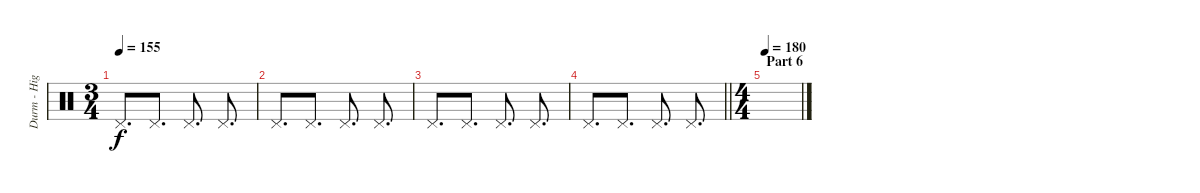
\track ("Durm - High Hat" "Durm - Hig") {instrument percussion}
\staff {score}
\articulation defaults
\ts (3 4)
\tempo 155
\clef neutral
\ks c "Pedal Hi-Hat (hit)".8{d dy f} "Pedal Hi-Hat (hit)".8{d} "Pedal Hi-Hat (hit)".8{d} "Pedal Hi-Hat (hit)".8{d}
|
"Pedal Hi-Hat (hit)".8{d} "Pedal Hi-Hat (hit)".8{d} "Pedal Hi-Hat (hit)".8{d} "Pedal Hi-Hat (hit)".8{d} |
"Pedal Hi-Hat (hit)".8{d} "Pedal Hi-Hat (hit)".8{d} "Pedal Hi-Hat (hit)".8{d} "Pedal Hi-Hat (hit)".8{d} |
\barLineRight lightlight "Pedal Hi-Hat (hit)".8{d} "Pedal Hi-Hat (hit)".8{d} "Pedal Hi-Hat (hit)".8{d} "Pedal Hi-Hat (hit)".8{d}
|
\ts (4 4)
\section ("" "Part 6")
\tempo 180
